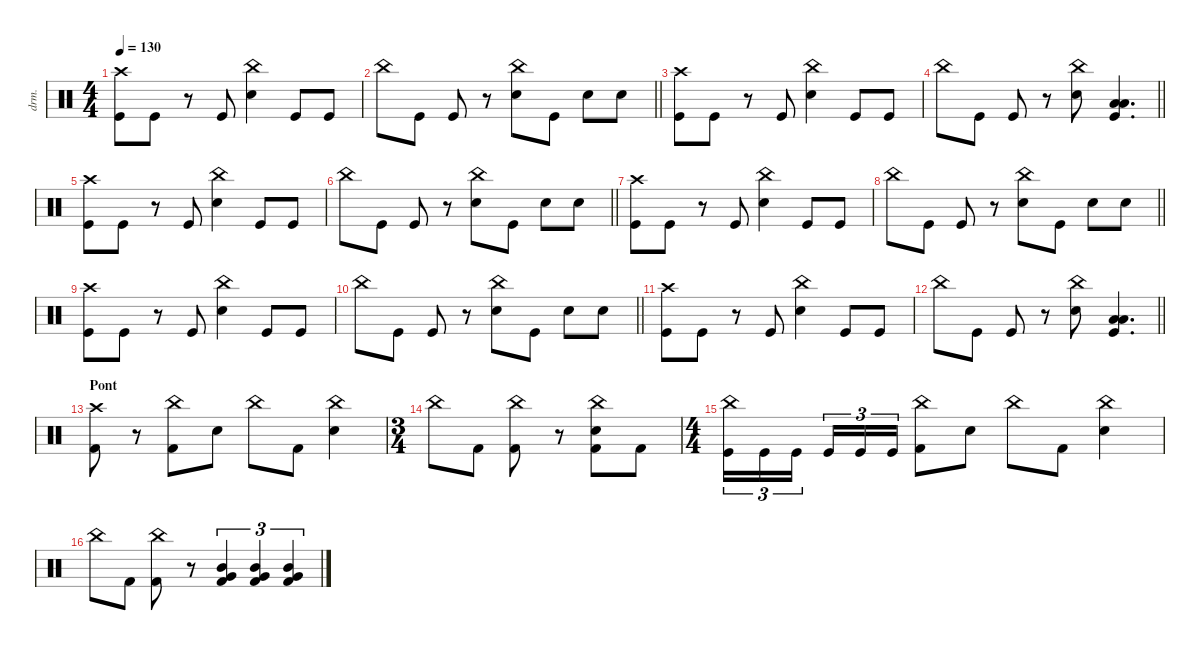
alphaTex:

\defaultSystemsLayout 4
\hideDynamics
\bracketExtendMode nobrackets
\otherSystemsTrackNameOrientation horizontal
\track ("Manouche" "drm.") {instrument percussion}
\staff {score}
\articulation defaults
\ts (4 4)
\tempo 130
\clef neutral
\ks c
("Crash high (hit)" "Kick (hit)").8{dy f} "Kick (hit)".8 r.8 "Kick (hit)".8 ("China (hit)" "Snare (hit) 2").4 "Kick (hit)".8 "Kick (hit)".8 |
\barLineRight lightlight "China (hit)".8 "Kick (hit)".8 "Kick (hit)".8
r.8 ("China (hit)" "Snare (hit) 2").8 "Kick (hit)".8 "Snare (hit) 2".8 "Snare (hit) 2".8 |
("Crash high (hit)" "Kick (hit)").8 "Kick (hit)".8 r.8 "Kick (hit)".8 ("China (hit)" "Snare (hit) 2").4 "Kick (hit)".8 "Kick (hit)".8 |
\barLineRight lightlight "China (hit)".8 "Kick (hit)".8 "Kick (hit)".8
r.8 ("China (hit)" "Snare (hit) 2").8 ("Low Tom (hit)" "Kick (hit)" "Low Floor Tom (hit)").4{d dy ff} |
("Crash high (hit)" "Kick (hit)").8{dy f} "Kick (hit)".8 r.8 "Kick (hit)".8 ("China (hit)" "Snare (hit) 2").4 "Kick (hit)".8 "Kick (hit)".8 |
\barLineRight lightlight "China (hit)".8 "Kick (hit)".8 "Kick (hit)".8
r.8 ("China (hit)" "Snare (hit) 2").8 "Kick (hit)".8 "Snare (hit) 2".8 "Snare (hit) 2".8 |
("Crash high (hit)" "Kick (hit)").8 "Kick (hit)".8 r.8 "Kick (hit)".8 ("China (hit)" "Snare (hit) 2").4 "Kick (hit)".8 "Kick (hit)".8 |
\barLineRight lightlight "China (hit)".8 "Kick (hit)".8 "Kick (hit)".8
r.8 ("China (hit)" "Snare (hit) 2").8 "Kick (hit)".8 "Snare (hit) 2".8 "Snare (hit) 2".8 |
("Crash high (hit)" "Kick (hit)").8 "Kick (hit)".8 r.8 "Kick (hit)".8 ("China (hit)" "Snare (hit) 2").4 "Kick (hit)".8 "Kick (hit)".8 |
\barLineRight lightlight "China (hit)".8 "Kick (hit)".8 "Kick (hit)".8
r.8 ("China (hit)" "Snare (hit) 2").8 "Kick (hit)".8 "Snare (hit) 2".8 "Snare (hit) 2".8 |
("Crash high (hit)" "Kick (hit)").8 "Kick (hit)".8 r.8 "Kick (hit)".8 ("China (hit)" "Snare (hit) 2").4 "Kick (hit)".8 "Kick (hit)".8 |
\barLineRight lightlight "China (hit)".8 "Kick (hit)".8 "Kick (hit)".8
r.8 ("China (hit)" "Snare (hit) 2").8 ("Low Tom (hit)" "Kick (hit)" "Low Floor Tom (hit)").4{d dy ff} |
\section ("" "Pont")
("Crash high (hit)" "Kick (hit) 2").8{dy f} r.8 ("China (hit)" "Kick (hit) 2").8 "Snare (hit) 2".8 "China (hit)".8 "Kick (hit) 2".8 ("China (hit)" "Snare (hit) 2").4 |
\ts (3 4)
\beaming (8 2 2 2)
"China (hit)".8 "Kick (hit) 2".8 ("China (hit)" "Kick (hit) 2").8 r.8 ("China (hit)" "Snare (hit) 2" "Kick (hit) 2").8 "Kick (hit) 2".8 |
\ts (4 4)
\beaming (8 2 2 2 2)
("Kick (hit)" "China (hit)").16{tu (3 2)} "Kick (hit)".16{tu (3 2)} "Kick (hit)".16{tu (3 2)} "Kick (hit)".16{tu (3 2)} "Kick (hit)".16{tu (3 2)} "Kick (hit)".16{tu (3 2)} ("China (hit)" "Kick (hit) 2").8 "Snare (hit) 2".8 "China (hit)".8 "Kick (hit) 2".8 ("China (hit)" "Snare (hit) 2").4 |
"China (hit)".8 "Kick (hit) 2".8 ("Kick (hit) 2" "China (hit)").8 r.8 ("Kick (hit) 2" "Mid Tom (hit)" "Very Low Tom (hit)").4{tu (3 2)} ("Kick (hit) 2" "Mid Tom (hit)" "Very Low Tom (hit)").4{tu (3 2)} ("Kick (hit) 2" "Mid Tom (hit)" "Very Low Tom (hit)").4{tu (3 2)}
